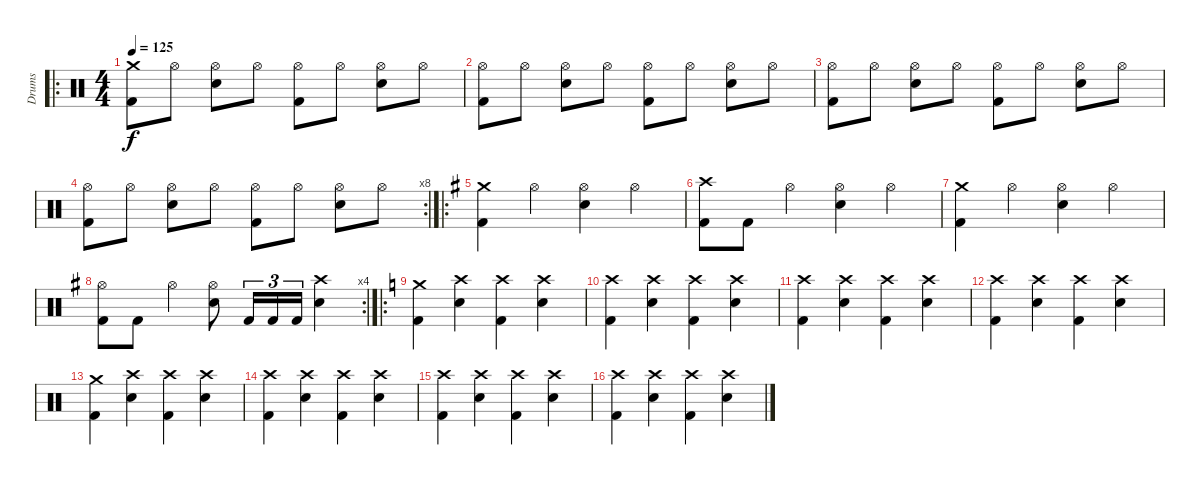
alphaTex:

\track ("Drums" "Drums") {instrument percussion}
\staff {score}
\articulation defaults
\ro
\ts (4 4)
\tempo 125
\clef neutral
\ks c
("Crash medium (hit)" "Kick (hit) 2").8{dy f} "Hi-Hat (open)".8 ("Hi-Hat (open)" "Electric Snare (hit)").8 "Hi-Hat (open)".8 ("Hi-Hat (open)" "Kick (hit) 2").8 "Hi-Hat (open)".8 ("Hi-Hat (open)" "Electric Snare (hit)").8 "Hi-Hat (open)".8 |
("Hi-Hat (open)" "Kick (hit) 2").8 "Hi-Hat (open)".8 ("Hi-Hat (open)" "Electric Snare (hit)").8 "Hi-Hat (open)".8 ("Hi-Hat (open)" "Kick (hit) 2").8 "Hi-Hat (open)".8 ("Hi-Hat (open)" "Electric Snare (hit)").8 "Hi-Hat (open)".8 |
("Hi-Hat (open)" "Kick (hit) 2").8 "Hi-Hat (open)".8 ("Hi-Hat (open)" "Electric Snare (hit)").8 "Hi-Hat (open)".8 ("Hi-Hat (open)" "Kick (hit) 2").8 "Hi-Hat (open)".8 ("Hi-Hat (open)" "Electric Snare (hit)").8 "Hi-Hat (open)".8 |
\rc 8
("Hi-Hat (open)" "Kick (hit) 2").8 "Hi-Hat (open)".8 ("Hi-Hat (open)" "Electric Snare (hit)").8 "Hi-Hat (open)".8 ("Hi-Hat (open)" "Kick (hit) 2").8 "Hi-Hat (open)".8 ("Hi-Hat (open)" "Electric Snare (hit)").8 "Hi-Hat (open)".8 |
\ro
\ks g
("Crash medium (hit)" "Kick (hit) 2").4 "Hi-Hat (open)".4 ("Hi-Hat (open)" "Electric Snare (hit)").4 "Hi-Hat (open)".4 |
("Crash high (hit)" "Kick (hit) 2").8 "Kick (hit) 2".8 "Hi-Hat (open)".4 ("Hi-Hat (open)" "Electric Snare (hit)").4 "Hi-Hat (open)".4 |
("Crash medium (hit)" "Kick (hit) 2").4 "Hi-Hat (open)".4 ("Hi-Hat (open)" "Electric Snare (hit)").4 "Hi-Hat (open)".4 |
\rc 4
("Hi-Hat (open)" "Kick (hit) 2").8 "Kick (hit) 2".8 "Hi-Hat (open)".4 ("Hi-Hat (open)" "Electric Snare (hit)").8 "Kick (hit) 2".16{tu (3 2)} "Kick (hit) 2".16{tu (3 2)} "Kick (hit) 2".16{tu (3 2)} ("Crash high (hit)" "Electric Snare (hit)").4 |
\ro
\ks c
("Crash medium (hit)" "Kick (hit) 2").4 ("Crash high (hit)" "Electric Snare (hit)").4 ("Crash high (hit)" "Kick (hit) 2").4 ("Crash high (hit)" "Electric Snare (hit)").4 |
("Crash high (hit)" "Kick (hit) 2").4 ("Crash high (hit)" "Electric Snare (hit)").4 ("Crash high (hit)" "Kick (hit) 2").4 ("Crash high (hit)" "Electric Snare (hit)").4 |
("Crash high (hit)" "Kick (hit) 2").4 ("Crash high (hit)" "Electric Snare (hit)").4 ("Crash high (hit)" "Kick (hit) 2").4 ("Crash high (hit)" "Electric Snare (hit)").4 |
("Crash high (hit)" "Kick (hit) 2").4 ("Crash high (hit)" "Electric Snare (hit)").4 ("Crash high (hit)" "Kick (hit) 2").4 ("Crash high (hit)" "Electric Snare (hit)").4 |
("Crash medium (hit)" "Kick (hit) 2").4 ("Crash high (hit)" "Electric Snare (hit)").4 ("Crash high (hit)" "Kick (hit) 2").4 ("Crash high (hit)" "Electric Snare (hit)").4 |
("Crash high (hit)" "Kick (hit) 2").4 ("Crash high (hit)" "Electric Snare (hit)").4 ("Crash high (hit)" "Kick (hit) 2").4 ("Crash high (hit)" "Electric Snare (hit)").4 |
("Crash high (hit)" "Kick (hit) 2").4 ("Crash high (hit)" "Electric Snare (hit)").4 ("Crash high (hit)" "Kick (hit) 2").4 ("Crash high (hit)" "Electric Snare (hit)").4 |
("Crash high (hit)" "Kick (hit) 2").4 ("Crash high (hit)" "Electric Snare (hit)").4 ("Crash high (hit)" "Kick (hit) 2").4 ("Crash high (hit)" "Electric Snare (hit)").4
